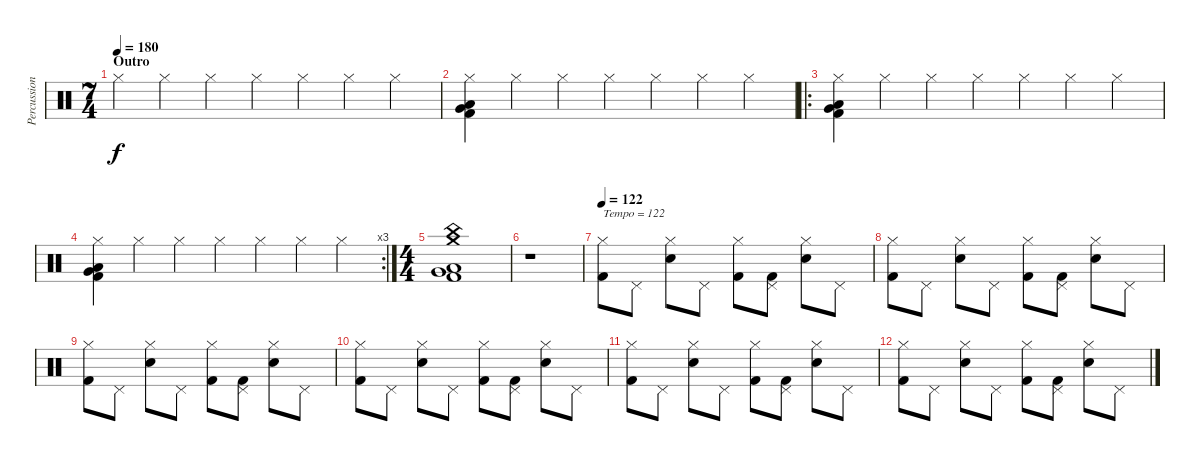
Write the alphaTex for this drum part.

\track ("Percussion" "Percussion") {instrument percussion}
\staff {score}
\articulation defaults
\ts (7 4)
\section ("" "Outro")
\tempo 180
\clef neutral
\ks c "Hi-Hat (closed)".4{dy f} "Hi-Hat (closed)".4 "Hi-Hat (closed)".4 "Hi-Hat (closed)".4 "Hi-Hat (closed)".4 "Hi-Hat (closed)".4 "Hi-Hat (closed)".4
|
("Hi-Hat (closed)" "Very Low Tom (hit)" "Low Floor Tom (hit)" "Kick (hit) 2").4 "Hi-Hat (closed)".4 "Hi-Hat (closed)".4 "Hi-Hat (closed)".4 "Hi-Hat (closed)".4 "Hi-Hat (closed)".4 "Hi-Hat (closed)".4 |
\ro
("Hi-Hat (closed)" "Very Low Tom (hit)" "Low Floor Tom (hit)" "Kick (hit) 2").4 "Hi-Hat (closed)".4 "Hi-Hat (closed)".4 "Hi-Hat (closed)".4 "Hi-Hat (closed)".4 "Hi-Hat (closed)".4 "Hi-Hat (closed)".4 |
\rc 3
("Hi-Hat (closed)" "Very Low Tom (hit)" "Low Floor Tom (hit)" "Kick (hit) 2").4 "Hi-Hat (closed)".4 "Hi-Hat (closed)".4 "Hi-Hat (closed)".4 "Hi-Hat (closed)".4 "Hi-Hat (closed)".4 "Hi-Hat (closed)".4 |
\ts (4 4)
("Crash medium (hit)" "China (hit)" "Very Low Tom (hit)" "Low Floor Tom (hit)" "Kick (hit) 2").1 |
r.1 |
\tempo 122
("Hi-Hat (closed)" "Kick (hit) 2").8{txt "Tempo = 122"} "Pedal Hi-Hat (hit)".8 ("Hi-Hat (closed)" "Snare (hit) 2").8 "Pedal Hi-Hat (hit)".8 ("Hi-Hat (closed)" "Kick (hit) 2").8 ("Pedal Hi-Hat (hit)" "Kick (hit) 2").8 ("Hi-Hat (closed)" "Snare (hit) 2").8 "Pedal Hi-Hat (hit)".8 |
("Hi-Hat (closed)" "Kick (hit) 2").8 "Pedal Hi-Hat (hit)".8 ("Hi-Hat (closed)" "Snare (hit) 2").8 "Pedal Hi-Hat (hit)".8 ("Hi-Hat (closed)" "Kick (hit) 2").8 ("Pedal Hi-Hat (hit)" "Kick (hit) 2").8 ("Hi-Hat (closed)" "Snare (hit) 2").8 "Pedal Hi-Hat (hit)".8 |
("Hi-Hat (closed)" "Kick (hit) 2").8 "Pedal Hi-Hat (hit)".8 ("Hi-Hat (closed)" "Snare (hit) 2").8 "Pedal Hi-Hat (hit)".8 ("Hi-Hat (closed)" "Kick (hit) 2").8 ("Pedal Hi-Hat (hit)" "Kick (hit) 2").8 ("Hi-Hat (closed)" "Snare (hit) 2").8 "Pedal Hi-Hat (hit)".8 |
("Hi-Hat (closed)" "Kick (hit) 2").8 "Pedal Hi-Hat (hit)".8 ("Hi-Hat (closed)" "Snare (hit) 2").8 "Pedal Hi-Hat (hit)".8 ("Hi-Hat (closed)" "Kick (hit) 2").8 ("Pedal Hi-Hat (hit)" "Kick (hit) 2").8 ("Hi-Hat (closed)" "Snare (hit) 2").8 "Pedal Hi-Hat (hit)".8 |
("Hi-Hat (closed)" "Kick (hit) 2").8 "Pedal Hi-Hat (hit)".8 ("Hi-Hat (closed)" "Snare (hit) 2").8 "Pedal Hi-Hat (hit)".8 ("Hi-Hat (closed)" "Kick (hit) 2").8 ("Pedal Hi-Hat (hit)" "Kick (hit) 2").8 ("Hi-Hat (closed)" "Snare (hit) 2").8 "Pedal Hi-Hat (hit)".8 |
("Hi-Hat (closed)" "Kick (hit) 2").8 "Pedal Hi-Hat (hit)".8 ("Hi-Hat (closed)" "Snare (hit) 2").8 "Pedal Hi-Hat (hit)".8 ("Hi-Hat (closed)" "Kick (hit) 2").8 ("Pedal Hi-Hat (hit)" "Kick (hit) 2").8 ("Hi-Hat (closed)" "Snare (hit) 2").8 "Pedal Hi-Hat (hit)".8
